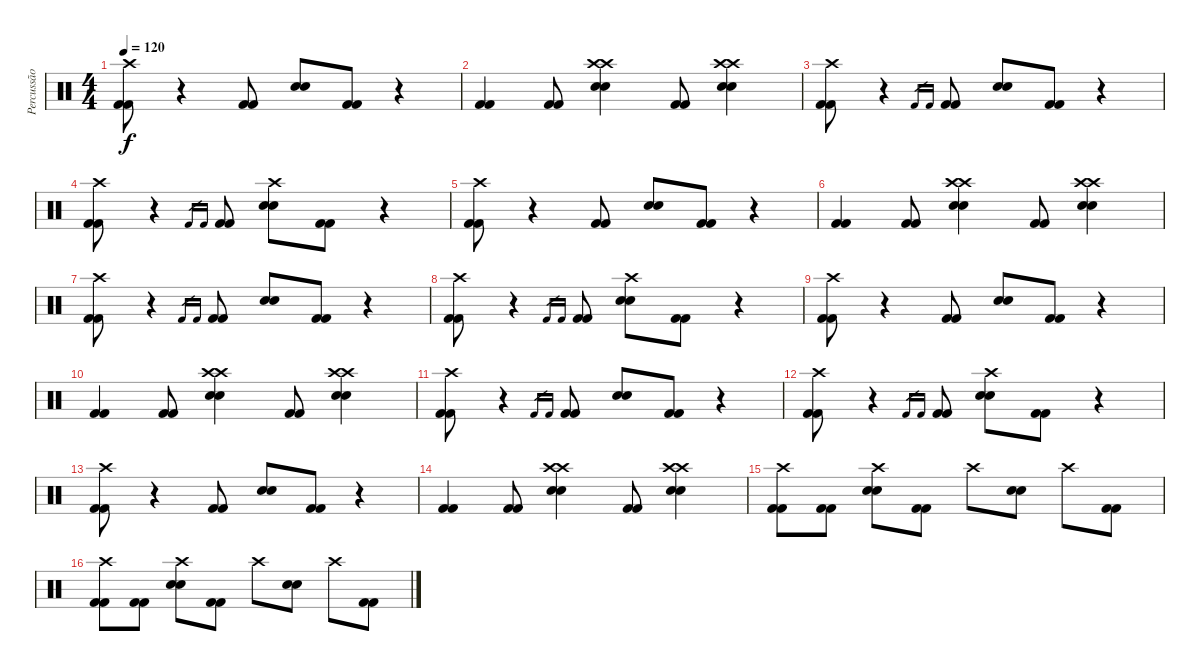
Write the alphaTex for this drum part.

\track ("Percussão" "Percussão") {instrument percussion}
\staff {score}
\articulation defaults
\ts (4 4)
\tempo 120
\clef neutral
\ks c
("Crash high (hit)" "Kick (hit) 2" "Kick (hit) 2").8{dy f} r.4 ("Kick (hit) 2" "Kick (hit) 2").8 ("Snare (hit) 2" "Snare (hit) 2").8 ("Kick (hit) 2" "Kick (hit) 2").8 r.4 |
("Kick (hit) 2" "Kick (hit) 2").4 ("Kick (hit) 2" "Kick (hit) 2").8 ("Crash high (hit)" "Crash high (hit)" "Snare (hit) 2" "Snare (hit) 2").4 ("Kick (hit) 2" "Kick (hit) 2").8 ("Crash high (hit)" "Crash high (hit)" "Snare (hit) 2" "Snare (hit) 2").4 |
("Crash high (hit)" "Kick (hit) 2" "Kick (hit) 2").8 r.4 "Kick (hit) 2".16{gr} "Kick (hit) 2".16{gr} ("Kick (hit) 2" "Kick (hit) 2").8 ("Snare (hit) 2" "Snare (hit) 2").8 ("Kick (hit) 2" "Kick (hit) 2").8 r.4 |
("Crash high (hit)" "Kick (hit) 2" "Kick (hit) 2").8 r.4 "Kick (hit) 2".16{gr} "Kick (hit) 2".16{gr} ("Kick (hit) 2" "Kick (hit) 2").8 ("Crash high (hit)" "Snare (hit) 2" "Snare (hit) 2").8 ("Kick (hit) 2" "Kick (hit) 2").8 r.4 |
("Crash high (hit)" "Kick (hit) 2" "Kick (hit) 2").8 r.4 ("Kick (hit) 2" "Kick (hit) 2").8 ("Snare (hit) 2" "Snare (hit) 2").8 ("Kick (hit) 2" "Kick (hit) 2").8 r.4 |
("Kick (hit) 2" "Kick (hit) 2").4 ("Kick (hit) 2" "Kick (hit) 2").8 ("Crash high (hit)" "Crash high (hit)" "Snare (hit) 2" "Snare (hit) 2").4 ("Kick (hit) 2" "Kick (hit) 2").8 ("Crash high (hit)" "Crash high (hit)" "Snare (hit) 2" "Snare (hit) 2").4 |
("Crash high (hit)" "Kick (hit) 2" "Kick (hit) 2").8 r.4 "Kick (hit) 2".16{gr} "Kick (hit) 2".16{gr} ("Kick (hit) 2" "Kick (hit) 2").8 ("Snare (hit) 2" "Snare (hit) 2").8 ("Kick (hit) 2" "Kick (hit) 2").8 r.4 |
("Crash high (hit)" "Kick (hit) 2" "Kick (hit) 2").8 r.4 "Kick (hit) 2".16{gr} "Kick (hit) 2".16{gr} ("Kick (hit) 2" "Kick (hit) 2").8 ("Crash high (hit)" "Snare (hit) 2" "Snare (hit) 2").8 ("Kick (hit) 2" "Kick (hit) 2").8 r.4 |
("Crash high (hit)" "Kick (hit) 2" "Kick (hit) 2").8 r.4 ("Kick (hit) 2" "Kick (hit) 2").8 ("Snare (hit) 2" "Snare (hit) 2").8 ("Kick (hit) 2" "Kick (hit) 2").8 r.4 |
("Kick (hit) 2" "Kick (hit) 2").4 ("Kick (hit) 2" "Kick (hit) 2").8 ("Crash high (hit)" "Crash high (hit)" "Snare (hit) 2" "Snare (hit) 2").4 ("Kick (hit) 2" "Kick (hit) 2").8 ("Crash high (hit)" "Crash high (hit)" "Snare (hit) 2" "Snare (hit) 2").4 |
("Crash high (hit)" "Kick (hit) 2" "Kick (hit) 2").8 r.4 "Kick (hit) 2".16{gr} "Kick (hit) 2".16{gr} ("Kick (hit) 2" "Kick (hit) 2").8 ("Snare (hit) 2" "Snare (hit) 2").8 ("Kick (hit) 2" "Kick (hit) 2").8 r.4 |
("Crash high (hit)" "Kick (hit) 2" "Kick (hit) 2").8 r.4 "Kick (hit) 2".16{gr} "Kick (hit) 2".16{gr} ("Kick (hit) 2" "Kick (hit) 2").8 ("Crash high (hit)" "Snare (hit) 2" "Snare (hit) 2").8 ("Kick (hit) 2" "Kick (hit) 2").8 r.4 |
("Crash high (hit)" "Kick (hit) 2" "Kick (hit) 2").8 r.4 ("Kick (hit) 2" "Kick (hit) 2").8 ("Snare (hit) 2" "Snare (hit) 2").8 ("Kick (hit) 2" "Kick (hit) 2").8 r.4 |
("Kick (hit) 2" "Kick (hit) 2").4 ("Kick (hit) 2" "Kick (hit) 2").8 ("Crash high (hit)" "Crash high (hit)" "Snare (hit) 2" "Snare (hit) 2").4 ("Kick (hit) 2" "Kick (hit) 2").8 ("Crash high (hit)" "Crash high (hit)" "Snare (hit) 2" "Snare (hit) 2").4 |
("Crash high (hit)" "Kick (hit) 2" "Kick (hit) 2").8 ("Kick (hit) 2" "Kick (hit) 2").8 ("Crash high (hit)" "Snare (hit) 2" "Snare (hit) 2").8 ("Kick (hit) 2" "Kick (hit) 2").8 "Crash high (hit)".8 ("Snare (hit) 2" "Snare (hit) 2").8 "Crash high (hit)".8 ("Kick (hit) 2" "Kick (hit) 2").8 |
("Crash high (hit)" "Kick (hit) 2" "Kick (hit) 2").8 ("Kick (hit) 2" "Kick (hit) 2").8 ("Crash high (hit)" "Snare (hit) 2" "Snare (hit) 2").8 ("Kick (hit) 2" "Kick (hit) 2").8 "Crash high (hit)".8 ("Snare (hit) 2" "Snare (hit) 2").8 "Crash high (hit)".8 ("Kick (hit) 2" "Kick (hit) 2").8
